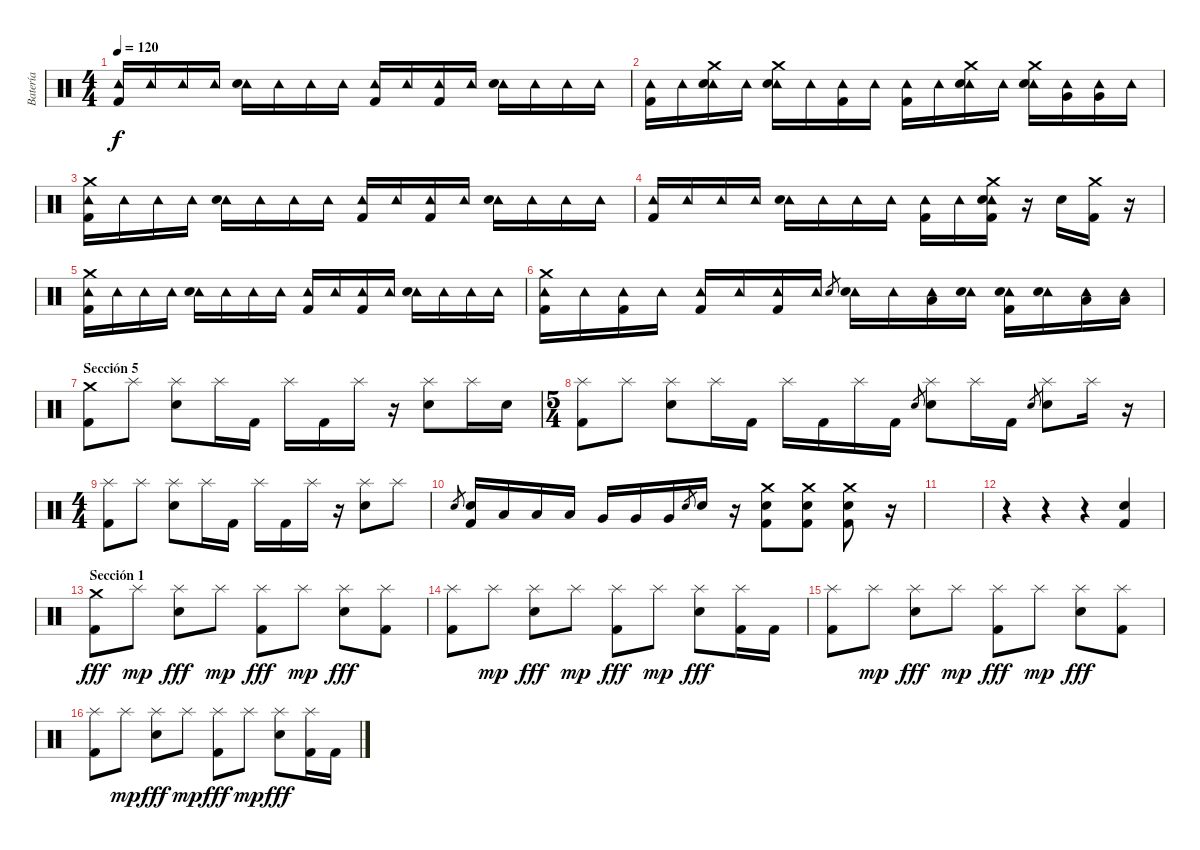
\track ("Batería" "Batería") {instrument percussion}
\staff {score}
\articulation defaults
\ts (4 4)
\tempo 120
\clef neutral
\ks c
("Tambourine (hit)" "Kick (hit) 2").16{dy f} "Tambourine (hit)".16 "Tambourine (hit)".16 "Tambourine (hit)".16 ("Tambourine (hit)" "Electric Snare (hit)").16 "Tambourine (hit)".16 "Tambourine (hit)".16 "Tambourine (hit)".16 ("Tambourine (hit)" "Kick (hit) 2").16 "Tambourine (hit)".16 ("Tambourine (hit)" "Kick (hit) 2").16 "Tambourine (hit)".16 ("Tambourine (hit)" "Electric Snare (hit)").16 "Tambourine (hit)".16 "Tambourine (hit)".16 "Tambourine (hit)".16 |
("Tambourine (hit)" "Kick (hit) 2").16 "Tambourine (hit)".16 ("Tambourine (hit)" "Crash medium (hit)" "Electric Snare (hit)").16 "Tambourine (hit)".16 ("Tambourine (hit)" "Crash medium (hit)" "Electric Snare (hit)").16 "Tambourine (hit)".16 ("Tambourine (hit)" "Kick (hit) 2").16 "Tambourine (hit)".16 ("Tambourine (hit)" "Kick (hit) 2").16 "Tambourine (hit)".16 ("Tambourine (hit)" "Crash medium (hit)" "Electric Snare (hit)").16 "Tambourine (hit)".16 ("Tambourine (hit)" "Crash medium (hit)" "Electric Snare (hit)").16 ("Tambourine (hit)" "Very Low Tom (hit)").16 ("Tambourine (hit)" "Very Low Tom (hit)").16 "Tambourine (hit)".16 |
("Tambourine (hit)" "Crash medium (hit)" "Kick (hit) 2").16 "Tambourine (hit)".16 "Tambourine (hit)".16 "Tambourine (hit)".16 ("Tambourine (hit)" "Electric Snare (hit)").16 "Tambourine (hit)".16 "Tambourine (hit)".16 "Tambourine (hit)".16 ("Tambourine (hit)" "Kick (hit) 2").16 "Tambourine (hit)".16 ("Tambourine (hit)" "Kick (hit) 2").16 "Tambourine (hit)".16 ("Tambourine (hit)" "Electric Snare (hit)").16 "Tambourine (hit)".16 "Tambourine (hit)".16 "Tambourine (hit)".16 |
("Tambourine (hit)" "Kick (hit) 2").16 "Tambourine (hit)".16 "Tambourine (hit)".16 "Tambourine (hit)".16 ("Tambourine (hit)" "Electric Snare (hit)").16 "Tambourine (hit)".16 "Tambourine (hit)".16 "Tambourine (hit)".16 ("Tambourine (hit)" "Kick (hit) 2").16 "Tambourine (hit)".16 ("Tambourine (hit)" "Crash medium (hit)" "Electric Snare (hit)" "Kick (hit) 2").16 r.16 "Electric Snare (hit)".16 ("Crash medium (hit)" "Kick (hit) 2").16 r.16 |
("Tambourine (hit)" "Crash medium (hit)" "Kick (hit) 2").16 "Tambourine (hit)".16 "Tambourine (hit)".16 "Tambourine (hit)".16 ("Tambourine (hit)" "Electric Snare (hit)").16 "Tambourine (hit)".16 "Tambourine (hit)".16 "Tambourine (hit)".16 ("Tambourine (hit)" "Kick (hit) 2").16 "Tambourine (hit)".16 ("Tambourine (hit)" "Kick (hit) 2").16 "Tambourine (hit)".16 ("Tambourine (hit)" "Electric Snare (hit)").16 "Tambourine (hit)".16 "Tambourine (hit)".16 "Tambourine (hit)".16 |
("Tambourine (hit)" "Crash medium (hit)" "Kick (hit) 2").16 "Tambourine (hit)".16 ("Tambourine (hit)" "Kick (hit) 2").16 "Tambourine (hit)".16 ("Tambourine (hit)" "Kick (hit) 2").16 "Tambourine (hit)".16 ("Tambourine (hit)" "Kick (hit) 2").16 "Tambourine (hit)".16 "Electric Snare (hit)".8{gr} ("Tambourine (hit)" "Electric Snare (hit)").16 "Tambourine (hit)".16 ("Tambourine (hit)" "Low Tom (hit)").16 ("Tambourine (hit)" "Electric Snare (hit)").16 ("Tambourine (hit)" "Electric Snare (hit)" "Kick (hit) 2").16 ("Tambourine (hit)" "Electric Snare (hit)").16 ("Tambourine (hit)" "Low Tom (hit)").16 ("Tambourine (hit)" "Low Tom (hit)").16 |
\section ("" "Sección 5")
("Crash medium (hit)" "Kick (hit) 2").8 "Splash (hit)".8 ("Splash (hit)" "Electric Snare (hit)").8 "Splash (hit)".16 "Kick (hit) 2".16 "Splash (hit)".16 "Kick (hit) 2".16 "Splash (hit)".16 r.16 ("Splash (hit)" "Electric Snare (hit)").8 "Splash (hit)".16 "Electric Snare (hit)".16 |
\ts (5 4)
("Splash (hit)" "Kick (hit) 2").8 "Splash (hit)".8 ("Splash (hit)" "Electric Snare (hit)").8 "Splash (hit)".16 "Kick (hit) 2".16 "Splash (hit)".16 "Kick (hit) 2".16 "Splash (hit)".16 "Kick (hit) 2".16 "Electric Snare (hit)".8{gr} ("Splash (hit)" "Electric Snare (hit)").8 "Splash (hit)".16 "Kick (hit) 2".16 "Electric Snare (hit)".8{gr} ("Splash (hit)" "Electric Snare (hit)").8 "Splash (hit)".16 r.16 |
\ts (4 4)
("Splash (hit)" "Kick (hit) 2").8 "Splash (hit)".8 ("Splash (hit)" "Electric Snare (hit)").8 "Splash (hit)".16 "Kick (hit) 2".16 "Splash (hit)".16 "Kick (hit) 2".16 "Splash (hit)".16 r.16 ("Splash (hit)" "Electric Snare (hit)").8 "Splash (hit)".8 |
"Electric Snare (hit)".8{gr} ("Electric Snare (hit)" "Kick (hit) 2").16 "Low Tom (hit)".16 "Low Tom (hit)".16 "Low Tom (hit)".16 "Very Low Tom (hit)".16 "Very Low Tom (hit)".16 "Very Low Tom (hit)".16 "Electric Snare (hit)".8{gr} "Electric Snare (hit)".16 r.16 ("Crash medium (hit)" "Electric Snare (hit)" "Kick (hit) 2").8 ("Crash medium (hit)" "Electric Snare (hit)" "Kick (hit) 2").8 ("Crash medium (hit)" "Electric Snare (hit)" "Kick (hit) 2").8 r.16 |
|
r.4 r.4 r.4 ("Electric Snare (hit)" "Kick (hit) 2").4 |
\section ("" "Sección 1")
("Crash medium (hit)" "Kick (hit) 2").8{dy fff} "Splash (hit)".8{dy mp} ("Splash (hit)" "Electric Snare (hit)").8{dy fff} "Splash (hit)".8{dy mp} ("Splash (hit)" "Kick (hit) 2").8{dy fff} "Splash (hit)".8{dy mp} ("Splash (hit)" "Electric Snare (hit)").8{dy fff} ("Splash (hit)" "Kick (hit) 2").8 |
("Splash (hit)" "Kick (hit) 2").8 "Splash (hit)".8{dy mp} ("Splash (hit)" "Electric Snare (hit)").8{dy fff} "Splash (hit)".8{dy mp} ("Splash (hit)" "Kick (hit) 2").8{dy fff} "Splash (hit)".8{dy mp} ("Splash (hit)" "Electric Snare (hit)").8{dy fff} ("Splash (hit)" "Kick (hit) 2").16 "Kick (hit) 2".16 |
("Splash (hit)" "Kick (hit) 2").8 "Splash (hit)".8{dy mp} ("Splash (hit)" "Electric Snare (hit)").8{dy fff} "Splash (hit)".8{dy mp} ("Splash (hit)" "Kick (hit) 2").8{dy fff} "Splash (hit)".8{dy mp} ("Splash (hit)" "Electric Snare (hit)").8{dy fff} ("Splash (hit)" "Kick (hit) 2").8 |
("Splash (hit)" "Kick (hit) 2").8 "Splash (hit)".8{dy mp} ("Splash (hit)" "Electric Snare (hit)").8{dy fff} "Splash (hit)".8{dy mp} ("Splash (hit)" "Kick (hit) 2").8{dy fff} "Splash (hit)".8{dy mp} ("Splash (hit)" "Electric Snare (hit)").8{dy fff} ("Splash (hit)" "Kick (hit) 2").16 "Kick (hit) 2".16
